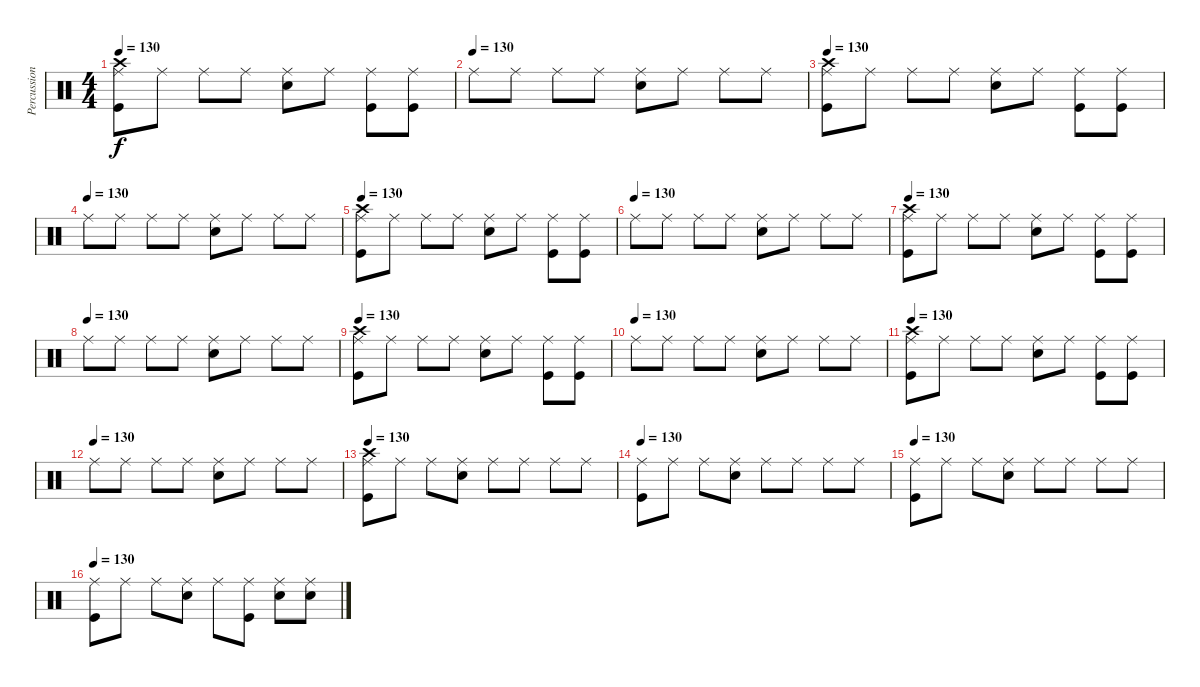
\track ("Percussion" "Percussion") {instrument percussion}
\staff {score}
\articulation defaults
\ts (4 4)
\tempo 130
\clef neutral
\ks c
("Crash high (hit)" "Ride (middle)" "Kick (hit)").8{dy f} "Ride (middle)".8 "Ride (middle)".8 "Ride (middle)".8 ("Ride (middle)" "Electric Snare (hit)").8 "Ride (middle)".8 ("Ride (middle)" "Kick (hit)").8 ("Ride (middle)" "Kick (hit)").8 |
\tempo (130)
"Ride (middle)".8 "Ride (middle)".8 "Ride (middle)".8 "Ride (middle)".8 ("Ride (middle)" "Electric Snare (hit)").8 "Ride (middle)".8 "Ride (middle)".8 "Ride (middle)".8 |
\tempo 130
("Crash high (hit)" "Ride (middle)" "Kick (hit)").8 "Ride (middle)".8 "Ride (middle)".8 "Ride (middle)".8 ("Ride (middle)" "Electric Snare (hit)").8 "Ride (middle)".8 ("Ride (middle)" "Kick (hit)").8 ("Ride (middle)" "Kick (hit)").8 |
\tempo (130)
"Ride (middle)".8 "Ride (middle)".8 "Ride (middle)".8 "Ride (middle)".8 ("Ride (middle)" "Electric Snare (hit)").8 "Ride (middle)".8 "Ride (middle)".8 "Ride (middle)".8 |
\tempo 130
("Crash high (hit)" "Ride (middle)" "Kick (hit)").8 "Ride (middle)".8 "Ride (middle)".8 "Ride (middle)".8 ("Ride (middle)" "Electric Snare (hit)").8 "Ride (middle)".8 ("Ride (middle)" "Kick (hit)").8 ("Ride (middle)" "Kick (hit)").8 |
\tempo (130)
"Ride (middle)".8 "Ride (middle)".8 "Ride (middle)".8 "Ride (middle)".8 ("Ride (middle)" "Electric Snare (hit)").8 "Ride (middle)".8 "Ride (middle)".8 "Ride (middle)".8 |
\tempo 130
("Crash high (hit)" "Ride (middle)" "Kick (hit)").8 "Ride (middle)".8 "Ride (middle)".8 "Ride (middle)".8 ("Ride (middle)" "Electric Snare (hit)").8 "Ride (middle)".8 ("Ride (middle)" "Kick (hit)").8 ("Ride (middle)" "Kick (hit)").8 |
\tempo (130)
"Ride (middle)".8 "Ride (middle)".8 "Ride (middle)".8 "Ride (middle)".8 ("Ride (middle)" "Electric Snare (hit)").8 "Ride (middle)".8 "Ride (middle)".8 "Ride (middle)".8 |
\tempo 130
("Crash high (hit)" "Ride (middle)" "Kick (hit)").8 "Ride (middle)".8 "Ride (middle)".8 "Ride (middle)".8 ("Ride (middle)" "Electric Snare (hit)").8 "Ride (middle)".8 ("Ride (middle)" "Kick (hit)").8 ("Ride (middle)" "Kick (hit)").8 |
\tempo (130)
"Ride (middle)".8 "Ride (middle)".8 "Ride (middle)".8 "Ride (middle)".8 ("Ride (middle)" "Electric Snare (hit)").8 "Ride (middle)".8 "Ride (middle)".8 "Ride (middle)".8 |
\tempo 130
("Crash high (hit)" "Ride (middle)" "Kick (hit)").8 "Ride (middle)".8 "Ride (middle)".8 "Ride (middle)".8 ("Ride (middle)" "Electric Snare (hit)").8 "Ride (middle)".8 ("Ride (middle)" "Kick (hit)").8 ("Ride (middle)" "Kick (hit)").8 |
\tempo (130)
"Ride (middle)".8 "Ride (middle)".8 "Ride (middle)".8 "Ride (middle)".8 ("Ride (middle)" "Electric Snare (hit)").8 "Ride (middle)".8 "Ride (middle)".8 "Ride (middle)".8 |
\tempo 130
("Crash high (hit)" "Ride (middle)" "Kick (hit)").8 "Ride (middle)".8 "Ride (middle)".8 ("Ride (middle)" "Electric Snare (hit)").8 "Ride (middle)".8 "Ride (middle)".8 "Ride (middle)".8 "Ride (middle)".8 |
\tempo 130
("Ride (middle)" "Kick (hit)").8 "Ride (middle)".8 "Ride (middle)".8 ("Ride (middle)" "Electric Snare (hit)").8 "Ride (middle)".8 "Ride (middle)".8 "Ride (middle)".8 "Ride (middle)".8 |
\tempo 130
("Ride (middle)" "Kick (hit)").8 "Ride (middle)".8 "Ride (middle)".8 ("Ride (middle)" "Electric Snare (hit)").8 "Ride (middle)".8 "Ride (middle)".8 "Ride (middle)".8 "Ride (middle)".8 |
\tempo 130
("Ride (middle)" "Kick (hit)").8 "Ride (middle)".8 "Ride (middle)".8 ("Ride (middle)" "Electric Snare (hit)").8 "Ride (middle)".8 ("Ride (middle)" "Kick (hit)").8 ("Ride (middle)" "Electric Snare (hit)").8 ("Ride (middle)" "Electric Snare (hit)").8
